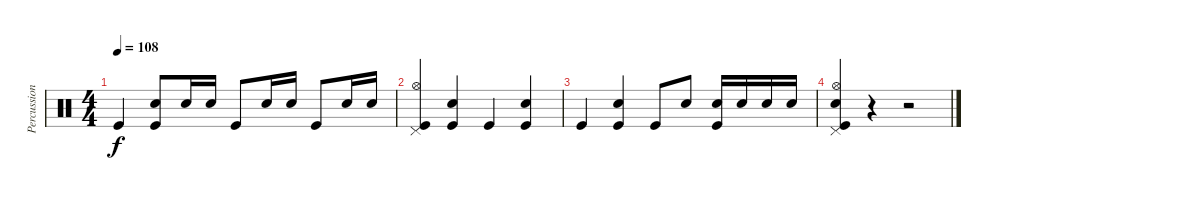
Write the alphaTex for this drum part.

\track ("Percussion" "Percussion") {instrument percussion}
\staff {score}
\articulation defaults
\ts (4 4)
\tempo 108
\clef neutral
\ks c "Kick (hit)".4{dy f}
("Snare (hit) 2" "Kick (hit)").8 "Snare (hit) 2".16 "Snare (hit) 2".16 "Kick (hit)".8 "Snare (hit) 2".16 "Snare (hit) 2".16 "Kick (hit)".8 "Snare (hit) 2".16 "Snare (hit) 2".16 |
("Hi-Hat (open)" "Pedal Hi-Hat (hit)" "Kick (hit)").4 ("Snare (hit) 2" "Kick (hit)").4 "Kick (hit)".4 ("Snare (hit) 2" "Kick (hit)").4 |
"Kick (hit)".4 ("Snare (hit) 2" "Kick (hit)").4 "Kick (hit)".8 "Snare (hit) 2".8 ("Snare (hit) 2" "Kick (hit)").16 "Snare (hit) 2".16 "Snare (hit) 2".16 "Snare (hit) 2".16 |
("Hi-Hat (open)" "Pedal Hi-Hat (hit)" "Snare (hit) 2" "Kick (hit)").4 r.4 r.2
